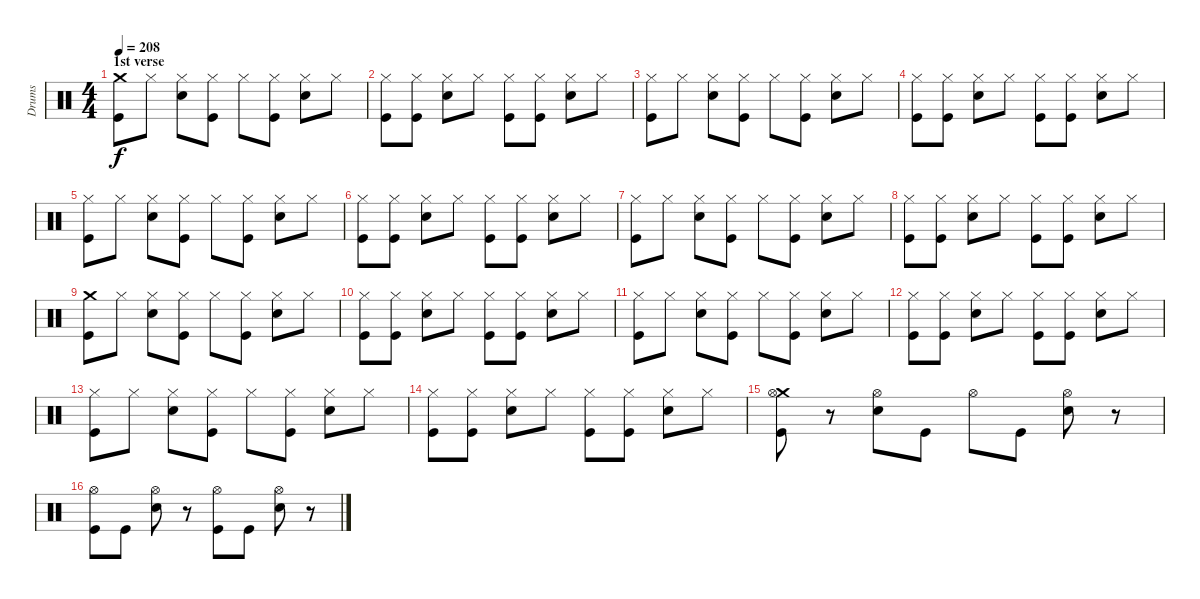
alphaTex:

\track ("Drums" "Drums") {instrument percussion}
\staff {score}
\articulation defaults
\ts (4 4)
\section ("" "1st verse")
\tempo 208
\clef neutral
\ks c
("Crash medium (hit)" "Kick (hit)").8{dy f} "Hi-Hat (closed)".8 ("Hi-Hat (closed)" "Electric Snare (hit)").8 ("Hi-Hat (closed)" "Kick (hit)").8 "Hi-Hat (closed)".8 ("Hi-Hat (closed)" "Kick (hit)").8 ("Hi-Hat (closed)" "Electric Snare (hit)").8 "Hi-Hat (closed)".8 |
("Hi-Hat (closed)" "Kick (hit)").8 ("Hi-Hat (closed)" "Kick (hit)").8 ("Hi-Hat (closed)" "Electric Snare (hit)").8 "Hi-Hat (closed)".8 ("Hi-Hat (closed)" "Kick (hit)").8 ("Hi-Hat (closed)" "Kick (hit)").8 ("Hi-Hat (closed)" "Electric Snare (hit)").8 "Hi-Hat (closed)".8 |
("Hi-Hat (closed)" "Kick (hit)").8 "Hi-Hat (closed)".8 ("Hi-Hat (closed)" "Electric Snare (hit)").8 ("Hi-Hat (closed)" "Kick (hit)").8 "Hi-Hat (closed)".8 ("Hi-Hat (closed)" "Kick (hit)").8 ("Hi-Hat (closed)" "Electric Snare (hit)").8 "Hi-Hat (closed)".8 |
("Hi-Hat (closed)" "Kick (hit)").8 ("Hi-Hat (closed)" "Kick (hit)").8 ("Hi-Hat (closed)" "Electric Snare (hit)").8 "Hi-Hat (closed)".8 ("Hi-Hat (closed)" "Kick (hit)").8 ("Hi-Hat (closed)" "Kick (hit)").8 ("Hi-Hat (closed)" "Electric Snare (hit)").8 "Hi-Hat (closed)".8 |
("Hi-Hat (closed)" "Kick (hit)").8 "Hi-Hat (closed)".8 ("Hi-Hat (closed)" "Electric Snare (hit)").8 ("Hi-Hat (closed)" "Kick (hit)").8 "Hi-Hat (closed)".8 ("Hi-Hat (closed)" "Kick (hit)").8 ("Hi-Hat (closed)" "Electric Snare (hit)").8 "Hi-Hat (closed)".8 |
("Hi-Hat (closed)" "Kick (hit)").8 ("Hi-Hat (closed)" "Kick (hit)").8 ("Hi-Hat (closed)" "Electric Snare (hit)").8 "Hi-Hat (closed)".8 ("Hi-Hat (closed)" "Kick (hit)").8 ("Hi-Hat (closed)" "Kick (hit)").8 ("Hi-Hat (closed)" "Electric Snare (hit)").8 "Hi-Hat (closed)".8 |
("Hi-Hat (closed)" "Kick (hit)").8 "Hi-Hat (closed)".8 ("Hi-Hat (closed)" "Electric Snare (hit)").8 ("Hi-Hat (closed)" "Kick (hit)").8 "Hi-Hat (closed)".8 ("Hi-Hat (closed)" "Kick (hit)").8 ("Hi-Hat (closed)" "Electric Snare (hit)").8 "Hi-Hat (closed)".8 |
("Hi-Hat (closed)" "Kick (hit)").8 ("Hi-Hat (closed)" "Kick (hit)").8 ("Hi-Hat (closed)" "Electric Snare (hit)").8 "Hi-Hat (closed)".8 ("Hi-Hat (closed)" "Kick (hit)").8 ("Hi-Hat (closed)" "Kick (hit)").8 ("Hi-Hat (closed)" "Electric Snare (hit)").8 "Hi-Hat (closed)".8 |
("Crash medium (hit)" "Kick (hit)").8 "Hi-Hat (closed)".8 ("Hi-Hat (closed)" "Electric Snare (hit)").8 ("Hi-Hat (closed)" "Kick (hit)").8 "Hi-Hat (closed)".8 ("Hi-Hat (closed)" "Kick (hit)").8 ("Hi-Hat (closed)" "Electric Snare (hit)").8 "Hi-Hat (closed)".8 |
("Hi-Hat (closed)" "Kick (hit)").8 ("Hi-Hat (closed)" "Kick (hit)").8 ("Hi-Hat (closed)" "Electric Snare (hit)").8 "Hi-Hat (closed)".8 ("Hi-Hat (closed)" "Kick (hit)").8 ("Hi-Hat (closed)" "Kick (hit)").8 ("Hi-Hat (closed)" "Electric Snare (hit)").8 "Hi-Hat (closed)".8 |
("Hi-Hat (closed)" "Kick (hit)").8 "Hi-Hat (closed)".8 ("Hi-Hat (closed)" "Electric Snare (hit)").8 ("Hi-Hat (closed)" "Kick (hit)").8 "Hi-Hat (closed)".8 ("Hi-Hat (closed)" "Kick (hit)").8 ("Hi-Hat (closed)" "Electric Snare (hit)").8 "Hi-Hat (closed)".8 |
("Hi-Hat (closed)" "Kick (hit)").8 ("Hi-Hat (closed)" "Kick (hit)").8 ("Hi-Hat (closed)" "Electric Snare (hit)").8 "Hi-Hat (closed)".8 ("Hi-Hat (closed)" "Kick (hit)").8 ("Hi-Hat (closed)" "Kick (hit)").8 ("Hi-Hat (closed)" "Electric Snare (hit)").8 "Hi-Hat (closed)".8 |
("Hi-Hat (closed)" "Kick (hit)").8 "Hi-Hat (closed)".8 ("Hi-Hat (closed)" "Electric Snare (hit)").8 ("Hi-Hat (closed)" "Kick (hit)").8 "Hi-Hat (closed)".8 ("Hi-Hat (closed)" "Kick (hit)").8 ("Hi-Hat (closed)" "Electric Snare (hit)").8 "Hi-Hat (closed)".8 |
("Hi-Hat (closed)" "Kick (hit)").8 ("Hi-Hat (closed)" "Kick (hit)").8 ("Hi-Hat (closed)" "Electric Snare (hit)").8 "Hi-Hat (closed)".8 ("Hi-Hat (closed)" "Kick (hit)").8 ("Hi-Hat (closed)" "Kick (hit)").8 ("Hi-Hat (closed)" "Electric Snare (hit)").8 "Hi-Hat (closed)".8 |
("Crash medium (hit)" "Hi-Hat (open)" "Kick (hit)").8 r.8 ("Hi-Hat (open)" "Electric Snare (hit)").8 "Kick (hit)".8 "Hi-Hat (open)".8 "Kick (hit)".8 ("Hi-Hat (open)" "Electric Snare (hit)").8 r.8 |
("Hi-Hat (open)" "Kick (hit)").8 "Kick (hit)".8 ("Hi-Hat (open)" "Electric Snare (hit)").8 r.8 ("Hi-Hat (open)" "Kick (hit)").8 "Kick (hit)".8 ("Hi-Hat (open)" "Electric Snare (hit)").8 r.8
